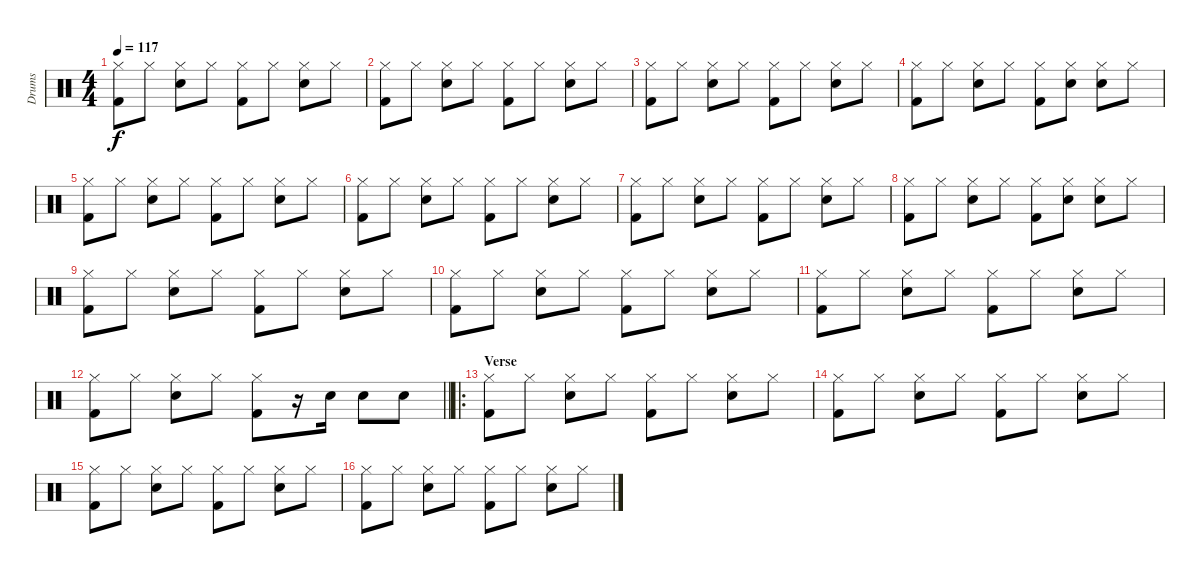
\track ("Drums" "Drums") {instrument percussion}
\staff {score}
\articulation defaults
\ts (4 4)
\tempo 117
\clef neutral
\ks c
("Hi-Hat (closed)" "Kick (hit) 2").8{dy f} "Hi-Hat (closed)".8 ("Hi-Hat (closed)" "Snare (hit) 2").8 "Hi-Hat (closed)".8 ("Hi-Hat (closed)" "Kick (hit) 2").8 "Hi-Hat (closed)".8 ("Hi-Hat (closed)" "Snare (hit) 2").8 "Hi-Hat (closed)".8 |
("Hi-Hat (closed)" "Kick (hit) 2").8 "Hi-Hat (closed)".8 ("Hi-Hat (closed)" "Snare (hit) 2").8 "Hi-Hat (closed)".8 ("Hi-Hat (closed)" "Kick (hit) 2").8 "Hi-Hat (closed)".8 ("Hi-Hat (closed)" "Snare (hit) 2").8 "Hi-Hat (closed)".8 |
("Hi-Hat (closed)" "Kick (hit) 2").8 "Hi-Hat (closed)".8 ("Hi-Hat (closed)" "Snare (hit) 2").8 "Hi-Hat (closed)".8 ("Hi-Hat (closed)" "Kick (hit) 2").8 "Hi-Hat (closed)".8 ("Hi-Hat (closed)" "Snare (hit) 2").8 "Hi-Hat (closed)".8 |
("Hi-Hat (closed)" "Kick (hit) 2").8 "Hi-Hat (closed)".8 ("Hi-Hat (closed)" "Snare (hit) 2").8 "Hi-Hat (closed)".8 ("Hi-Hat (closed)" "Kick (hit) 2").8 ("Hi-Hat (closed)" "Snare (hit) 2").8 ("Hi-Hat (closed)" "Snare (hit) 2").8 "Hi-Hat (closed)".8 |
("Hi-Hat (closed)" "Kick (hit) 2").8 "Hi-Hat (closed)".8 ("Hi-Hat (closed)" "Snare (hit) 2").8 "Hi-Hat (closed)".8 ("Hi-Hat (closed)" "Kick (hit) 2").8 "Hi-Hat (closed)".8 ("Hi-Hat (closed)" "Snare (hit) 2").8 "Hi-Hat (closed)".8 |
("Hi-Hat (closed)" "Kick (hit) 2").8 "Hi-Hat (closed)".8 ("Hi-Hat (closed)" "Snare (hit) 2").8 "Hi-Hat (closed)".8 ("Hi-Hat (closed)" "Kick (hit) 2").8 "Hi-Hat (closed)".8 ("Hi-Hat (closed)" "Snare (hit) 2").8 "Hi-Hat (closed)".8 |
("Hi-Hat (closed)" "Kick (hit) 2").8 "Hi-Hat (closed)".8 ("Hi-Hat (closed)" "Snare (hit) 2").8 "Hi-Hat (closed)".8 ("Hi-Hat (closed)" "Kick (hit) 2").8 "Hi-Hat (closed)".8 ("Hi-Hat (closed)" "Snare (hit) 2").8 "Hi-Hat (closed)".8 |
("Hi-Hat (closed)" "Kick (hit) 2").8 "Hi-Hat (closed)".8 ("Hi-Hat (closed)" "Snare (hit) 2").8 "Hi-Hat (closed)".8 ("Hi-Hat (closed)" "Kick (hit) 2").8 ("Hi-Hat (closed)" "Snare (hit) 2").8 ("Hi-Hat (closed)" "Snare (hit) 2").8 "Hi-Hat (closed)".8 |
("Hi-Hat (closed)" "Kick (hit) 2").8 "Hi-Hat (closed)".8 ("Hi-Hat (closed)" "Snare (hit) 2").8 "Hi-Hat (closed)".8 ("Hi-Hat (closed)" "Kick (hit) 2").8 "Hi-Hat (closed)".8 ("Hi-Hat (closed)" "Snare (hit) 2").8 "Hi-Hat (closed)".8 |
("Hi-Hat (closed)" "Kick (hit) 2").8 "Hi-Hat (closed)".8 ("Hi-Hat (closed)" "Snare (hit) 2").8 "Hi-Hat (closed)".8 ("Hi-Hat (closed)" "Kick (hit) 2").8 "Hi-Hat (closed)".8 ("Hi-Hat (closed)" "Snare (hit) 2").8 "Hi-Hat (closed)".8 |
("Hi-Hat (closed)" "Kick (hit) 2").8 "Hi-Hat (closed)".8 ("Hi-Hat (closed)" "Snare (hit) 2").8 "Hi-Hat (closed)".8 ("Hi-Hat (closed)" "Kick (hit) 2").8 "Hi-Hat (closed)".8 ("Hi-Hat (closed)" "Snare (hit) 2").8 "Hi-Hat (closed)".8 |
\barLineRight lightlight
("Hi-Hat (closed)" "Kick (hit) 2").8 "Hi-Hat (closed)".8 ("Hi-Hat (closed)" "Snare (hit) 2").8 "Hi-Hat (closed)".8 ("Hi-Hat (closed)" "Kick (hit) 2").8 r.16 "Electric Snare (hit)".16 "Electric Snare (hit)".8 "Electric Snare (hit)".8 |
\ro
\section ("" "Verse")
("Hi-Hat (closed)" "Kick (hit) 2").8 "Hi-Hat (closed)".8 ("Hi-Hat (closed)" "Snare (hit) 2").8 "Hi-Hat (closed)".8 ("Hi-Hat (closed)" "Kick (hit) 2").8 "Hi-Hat (closed)".8 ("Hi-Hat (closed)" "Snare (hit) 2").8 "Hi-Hat (closed)".8 |
("Hi-Hat (closed)" "Kick (hit) 2").8 "Hi-Hat (closed)".8 ("Hi-Hat (closed)" "Snare (hit) 2").8 "Hi-Hat (closed)".8 ("Hi-Hat (closed)" "Kick (hit) 2").8 "Hi-Hat (closed)".8 ("Hi-Hat (closed)" "Snare (hit) 2").8 "Hi-Hat (closed)".8 |
("Hi-Hat (closed)" "Kick (hit) 2").8 "Hi-Hat (closed)".8 ("Hi-Hat (closed)" "Snare (hit) 2").8 "Hi-Hat (closed)".8 ("Hi-Hat (closed)" "Kick (hit) 2").8 "Hi-Hat (closed)".8 ("Hi-Hat (closed)" "Snare (hit) 2").8 "Hi-Hat (closed)".8 |
("Hi-Hat (closed)" "Kick (hit) 2").8 "Hi-Hat (closed)".8 ("Hi-Hat (closed)" "Snare (hit) 2").8 "Hi-Hat (closed)".8 ("Hi-Hat (closed)" "Kick (hit) 2").8 "Hi-Hat (closed)".8 ("Hi-Hat (closed)" "Snare (hit) 2").8 "Hi-Hat (closed)".8
